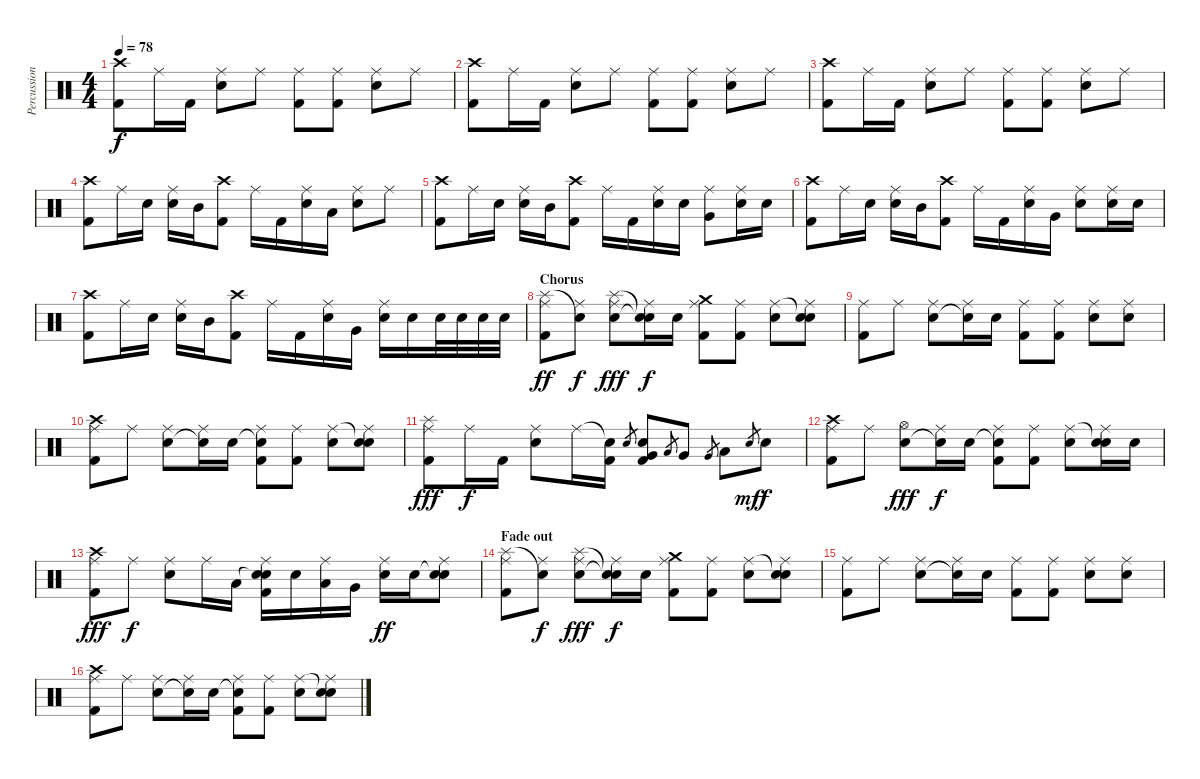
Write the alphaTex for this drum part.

\track ("Percussion" "Percussion") {instrument percussion}
\staff {score}
\articulation defaults
\ts (4 4)
\tempo 78
\clef neutral
\ks c
("Crash high (hit)" "Kick (hit) 2").8{dy f} "Ride (middle)".16 "Kick (hit) 2".16 ("Ride (middle)" "Electric Snare (hit)").8 "Ride (middle)".8 ("Ride (middle)" "Kick (hit) 2").8 ("Ride (middle)" "Kick (hit) 2").8 ("Ride (middle)" "Electric Snare (hit)").8 "Ride (middle)".8 |
("Crash high (hit)" "Kick (hit) 2").8 "Ride (middle)".16 "Kick (hit) 2".16 ("Ride (middle)" "Electric Snare (hit)").8 "Ride (middle)".8 ("Ride (middle)" "Kick (hit) 2").8 ("Ride (middle)" "Kick (hit) 2").8 ("Ride (middle)" "Electric Snare (hit)").8 "Ride (middle)".8 |
("Crash high (hit)" "Kick (hit) 2").8 "Ride (middle)".16 "Kick (hit) 2".16 ("Ride (middle)" "Electric Snare (hit)").8 "Ride (middle)".8 ("Ride (middle)" "Kick (hit) 2").8 ("Ride (middle)" "Kick (hit) 2").8 ("Ride (middle)" "Electric Snare (hit)").8 "Ride (middle)".8 |
("Crash high (hit)" "Kick (hit) 2").8 "Ride (middle)".16 "Electric Snare (hit)".16 ("Ride (middle)" "Electric Snare (hit)").16 "Mid Tom (hit)".16 ("Crash high (hit)" "Kick (hit) 2").8 "Ride (middle)".16 "Kick (hit) 2".16 ("Ride (middle)" "Electric Snare (hit)").16 "Low Tom (hit)".16 ("Ride (middle)" "Electric Snare (hit)").8 "Ride (middle)".8 |
("Crash high (hit)" "Kick (hit) 2").8 "Ride (middle)".16 "Electric Snare (hit)".16 ("Ride (middle)" "Electric Snare (hit)").16 "Mid Tom (hit)".16 ("Crash high (hit)" "Kick (hit) 2").8 "Ride (middle)".16 "Kick (hit) 2".16 ("Ride (middle)" "Electric Snare (hit)").16 "Snare (hit) 2".16 ("Ride (middle)" "Very Low Tom (hit)").8 ("Ride (middle)" "Electric Snare (hit)").16 "Electric Snare (hit)".16 |
("Crash high (hit)" "Kick (hit) 2").8 "Ride (middle)".16 "Electric Snare (hit)".16 ("Ride (middle)" "Electric Snare (hit)").16 "Mid Tom (hit)".16 ("Crash high (hit)" "Kick (hit) 2").8 "Ride (middle)".16 "Kick (hit) 2".16 ("Ride (middle)" "Electric Snare (hit)").16 "Very Low Tom (hit)".16 ("Ride (middle)" "Electric Snare (hit)").8 ("Ride (middle)" "Electric Snare (hit)").16 "Electric Snare (hit)".16 |
("Crash high (hit)" "Kick (hit) 2").8 "Ride (middle)".16 "Electric Snare (hit)".16 ("Ride (middle)" "Electric Snare (hit)").16 "Mid Tom (hit)".16 ("Crash high (hit)" "Kick (hit) 2").8 "Ride (middle)".16 "Kick (hit) 2".16 ("Ride (middle)" "Electric Snare (hit)").16 "Very Low Tom (hit)".16 ("Ride (middle)" "Electric Snare (hit)").16 "Electric Snare (hit)".16 "Electric Snare (hit)".32 "Electric Snare (hit)".32 "Electric Snare (hit)".32 "Electric Snare (hit)".32 |
\section ("" "Chorus")
("Splash (hit)" "Ride (middle)" "Kick (hit) 2").8{dy ff volume 13} ("Snare (hit)"{t} "Ride (middle)").8{dy f} ("Splash (hit)" "Ride (middle)" "Electric Snare (hit)").8{dy fff} ("Snare (hit)"{t} "Ride (middle)" "Snare (hit)"{t}).16{dy f} "Snare (hit) 2".16 ("Crash medium (hit)" "Ride (middle)" "Kick (hit) 2").8 ("Ride (middle)" "Kick (hit) 2").8 ("Ride (middle)" "Electric Snare (hit)").8 ("Snare (hit)"{t} "Ride (middle)" "Electric Snare (hit)").8 |
("Ride (middle)" "Kick (hit) 2").8 "Ride (middle)".8 ("Ride (middle)" "Electric Snare (hit)").8 ("Ride (middle)" "Snare (hit)"{t}).16 "Snare (hit) 2".16 ("Ride (middle)" "Kick (hit) 2").8 ("Ride (middle)" "Kick (hit) 2").8 ("Ride (middle)" "Electric Snare (hit)").8 ("Ride (middle)" "Electric Snare (hit)").8 |
("Crash high (hit)" "Ride (middle)" "Kick (hit) 2").8 "Ride (middle)".8 ("Ride (middle)" "Electric Snare (hit)").8 ("Ride (middle)" "Snare (hit)"{t}).16 "Snare (hit) 2".16 ("Snare (hit)"{t} "Ride (middle)" "Kick (hit) 2").8 ("Ride (middle)" "Kick (hit) 2").8 ("Ride (middle)" "Electric Snare (hit)").8 ("Snare (hit)"{t} "Ride (middle)" "Electric Snare (hit)").8 |
("Splash (hit)" "Ride (middle)" "Kick (hit) 2").8{dy fff} "Ride (middle)".16{dy f} "Kick (hit) 2".16 ("Ride (middle)" "Electric Snare (hit)").8 "Ride (middle)".16 ("Snare (hit)"{t} "Kick (hit) 2").16 "Electric Snare (hit)".8{gr} ("Electric Snare (hit)" "Very Low Tom (hit)" "Kick (hit) 2").8 "Low Tom (hit)".8{gr} "Very Low Tom (hit)".8 "Very Low Tom (hit)".8{gr} "Low Floor Tom (hit)".8 "Electric Snare (hit)".8{gr dy mf} "Electric Snare (hit)".8{dy f} |
("Crash high (hit)" "Ride (middle)" "Kick (hit) 2").8 "Ride (middle)".8 ("Hi-Hat (open)" "Electric Snare (hit)").8{dy fff} ("Ride (middle)" "Snare (hit)"{t}).16{dy f} "Snare (hit) 2".16 ("Snare (hit)"{t} "Ride (middle)" "Kick (hit) 2").8 ("Ride (middle)" "Kick (hit) 2").8 ("Ride (middle)" "Electric Snare (hit)").8 ("Snare (hit)"{t} "Ride (middle)" "Electric Snare (hit)").16 "Electric Snare (hit)".16 |
("Crash high (hit)" "Ride (middle)" "Kick (hit) 2").8{dy fff} "Ride (middle)".8{dy f} ("Ride (middle)" "Electric Snare (hit)").8 "Ride (middle)".16 "Low Tom (hit)".16 ("Snare (hit)"{t} "Ride (middle)" "Electric Snare (hit)" "Kick (hit) 2").16 "Electric Snare (hit)".16 ("Ride (middle)" "Low Tom (hit)").16 "Very Low Tom (hit)".16 ("Ride (middle)" "Electric Snare (hit)").16{dy ff} "Electric Snare (hit)".16 ("Snare (hit)"{t} "Ride (middle)" "Electric Snare (hit)").8 |
\section ("" "Fade out")
("Splash (hit)" "Ride (middle)" "Kick (hit) 2").8{volume 8} ("Snare (hit)"{t} "Ride (middle)").8{dy f} ("Splash (hit)" "Ride (middle)" "Electric Snare (hit)").8{dy fff} ("Snare (hit)"{t} "Ride (middle)" "Snare (hit)"{t}).16{dy f} "Snare (hit) 2".16 ("Crash medium (hit)" "Ride (middle)" "Kick (hit) 2").8 ("Ride (middle)" "Kick (hit) 2").8 ("Ride (middle)" "Electric Snare (hit)").8 ("Snare (hit)"{t} "Ride (middle)" "Electric Snare (hit)").8 |
("Ride (middle)" "Kick (hit) 2").8 "Ride (middle)".8 ("Ride (middle)" "Electric Snare (hit)").8 ("Ride (middle)" "Snare (hit)"{t}).16 "Snare (hit) 2".16 ("Ride (middle)" "Kick (hit) 2").8 ("Ride (middle)" "Kick (hit) 2").8 ("Ride (middle)" "Electric Snare (hit)").8 ("Ride (middle)" "Electric Snare (hit)").8 |
("Crash high (hit)" "Ride (middle)" "Kick (hit) 2").8{volume 4} "Ride (middle)".8 ("Ride (middle)" "Electric Snare (hit)").8 ("Ride (middle)" "Snare (hit)"{t}).16 "Snare (hit) 2".16 ("Snare (hit)"{t} "Ride (middle)" "Kick (hit) 2").8 ("Ride (middle)" "Kick (hit) 2").8 ("Ride (middle)" "Electric Snare (hit)").8 ("Snare (hit)"{t} "Ride (middle)" "Electric Snare (hit)").8
